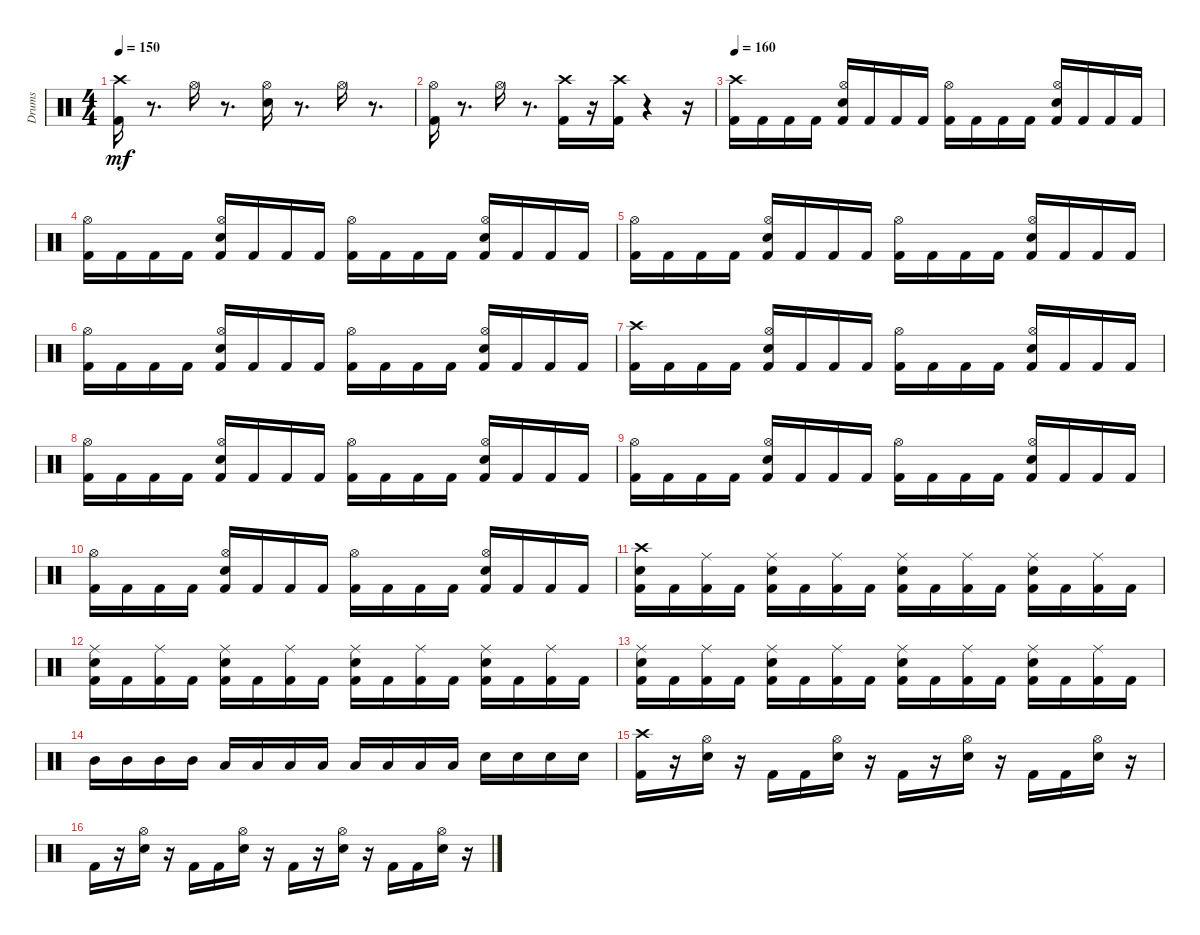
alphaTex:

\track ("Drums               " "Drums     ") {instrument percussion}
\staff {score}
\articulation defaults
\ts (4 4)
\tempo 150
\clef neutral
\ks c
("Kick (hit) 2" "Crash high (hit)").16{dy mf} r.8{d} "Hi-Hat (open)".16 r.8{d} ("Hi-Hat (open)" "Snare (hit) 2").16 r.8{d} "Hi-Hat (open)".16 r.8{d} |
("Kick (hit) 2" "Hi-Hat (open)").16 r.8{d} "Hi-Hat (open)".16 r.8{d} ("Crash high (hit)" "Kick (hit) 2").16 r.16 ("Crash high (hit)" "Kick (hit) 2").16 r.4 r.16 |
\tempo 160
("Crash high (hit)" "Kick (hit) 2").16 "Kick (hit) 2".16 "Kick (hit) 2".16 "Kick (hit) 2".16 ("Kick (hit) 2" "Snare (hit) 2" "Hi-Hat (open)").16 "Kick (hit) 2".16 "Kick (hit) 2".16 "Kick (hit) 2".16 ("Kick (hit) 2" "Hi-Hat (open)").16 "Kick (hit) 2".16 "Kick (hit) 2".16 "Kick (hit) 2".16 ("Kick (hit) 2" "Snare (hit) 2" "Hi-Hat (open)").16 "Kick (hit) 2".16 "Kick (hit) 2".16 "Kick (hit) 2".16 |
("Kick (hit) 2" "Hi-Hat (open)").16 "Kick (hit) 2".16 "Kick (hit) 2".16 "Kick (hit) 2".16 ("Kick (hit) 2" "Snare (hit) 2" "Hi-Hat (open)").16 "Kick (hit) 2".16 "Kick (hit) 2".16 "Kick (hit) 2".16 ("Kick (hit) 2" "Hi-Hat (open)").16 "Kick (hit) 2".16 "Kick (hit) 2".16 "Kick (hit) 2".16 ("Kick (hit) 2" "Snare (hit) 2" "Hi-Hat (open)").16 "Kick (hit) 2".16 "Kick (hit) 2".16 "Kick (hit) 2".16 |
("Kick (hit) 2" "Hi-Hat (open)").16 "Kick (hit) 2".16 "Kick (hit) 2".16 "Kick (hit) 2".16 ("Kick (hit) 2" "Snare (hit) 2" "Hi-Hat (open)").16 "Kick (hit) 2".16 "Kick (hit) 2".16 "Kick (hit) 2".16 ("Kick (hit) 2" "Hi-Hat (open)").16 "Kick (hit) 2".16 "Kick (hit) 2".16 "Kick (hit) 2".16 ("Kick (hit) 2" "Snare (hit) 2" "Hi-Hat (open)").16 "Kick (hit) 2".16 "Kick (hit) 2".16 "Kick (hit) 2".16 |
("Kick (hit) 2" "Hi-Hat (open)").16 "Kick (hit) 2".16 "Kick (hit) 2".16 "Kick (hit) 2".16 ("Kick (hit) 2" "Snare (hit) 2" "Hi-Hat (open)").16 "Kick (hit) 2".16 "Kick (hit) 2".16 "Kick (hit) 2".16 ("Kick (hit) 2" "Hi-Hat (open)").16 "Kick (hit) 2".16 "Kick (hit) 2".16 "Kick (hit) 2".16 ("Kick (hit) 2" "Snare (hit) 2" "Hi-Hat (open)").16 "Kick (hit) 2".16 "Kick (hit) 2".16 "Kick (hit) 2".16 |
("Kick (hit) 2" "Crash high (hit)").16 "Kick (hit) 2".16 "Kick (hit) 2".16 "Kick (hit) 2".16 ("Kick (hit) 2" "Snare (hit) 2" "Hi-Hat (open)").16 "Kick (hit) 2".16 "Kick (hit) 2".16 "Kick (hit) 2".16 ("Kick (hit) 2" "Hi-Hat (open)").16 "Kick (hit) 2".16 "Kick (hit) 2".16 "Kick (hit) 2".16 ("Kick (hit) 2" "Snare (hit) 2" "Hi-Hat (open)").16 "Kick (hit) 2".16 "Kick (hit) 2".16 "Kick (hit) 2".16 |
("Kick (hit) 2" "Hi-Hat (open)").16 "Kick (hit) 2".16 "Kick (hit) 2".16 "Kick (hit) 2".16 ("Kick (hit) 2" "Snare (hit) 2" "Hi-Hat (open)").16 "Kick (hit) 2".16 "Kick (hit) 2".16 "Kick (hit) 2".16 ("Kick (hit) 2" "Hi-Hat (open)").16 "Kick (hit) 2".16 "Kick (hit) 2".16 "Kick (hit) 2".16 ("Kick (hit) 2" "Snare (hit) 2" "Hi-Hat (open)").16 "Kick (hit) 2".16 "Kick (hit) 2".16 "Kick (hit) 2".16 |
("Kick (hit) 2" "Hi-Hat (open)").16 "Kick (hit) 2".16 "Kick (hit) 2".16 "Kick (hit) 2".16 ("Kick (hit) 2" "Snare (hit) 2" "Hi-Hat (open)").16 "Kick (hit) 2".16 "Kick (hit) 2".16 "Kick (hit) 2".16 ("Kick (hit) 2" "Hi-Hat (open)").16 "Kick (hit) 2".16 "Kick (hit) 2".16 "Kick (hit) 2".16 ("Kick (hit) 2" "Snare (hit) 2" "Hi-Hat (open)").16 "Kick (hit) 2".16 "Kick (hit) 2".16 "Kick (hit) 2".16 |
("Kick (hit) 2" "Hi-Hat (open)").16 "Kick (hit) 2".16 "Kick (hit) 2".16 "Kick (hit) 2".16 ("Kick (hit) 2" "Snare (hit) 2" "Hi-Hat (open)").16 "Kick (hit) 2".16 "Kick (hit) 2".16 "Kick (hit) 2".16 ("Kick (hit) 2" "Hi-Hat (open)").16 "Kick (hit) 2".16 "Kick (hit) 2".16 "Kick (hit) 2".16 ("Kick (hit) 2" "Snare (hit) 2" "Hi-Hat (open)").16 "Kick (hit) 2".16 "Kick (hit) 2".16 "Kick (hit) 2".16 |
("Crash high (hit)" "Kick (hit) 2" "Snare (hit) 2").16 "Kick (hit) 2".16 ("Kick (hit) 2" "Ride (middle)").16 "Kick (hit) 2".16 ("Kick (hit) 2" "Snare (hit) 2" "Ride (middle)").16 "Kick (hit) 2".16 ("Kick (hit) 2" "Ride (middle)").16 "Kick (hit) 2".16 ("Kick (hit) 2" "Snare (hit) 2" "Ride (middle)").16 "Kick (hit) 2".16 ("Kick (hit) 2" "Ride (middle)").16 "Kick (hit) 2".16 ("Kick (hit) 2" "Snare (hit) 2" "Ride (middle)").16 "Kick (hit) 2".16 ("Kick (hit) 2" "Ride (middle)").16 "Kick (hit) 2".16 |
("Kick (hit) 2" "Snare (hit) 2" "Ride (middle)").16 "Kick (hit) 2".16 ("Kick (hit) 2" "Ride (middle)").16 "Kick (hit) 2".16 ("Kick (hit) 2" "Snare (hit) 2" "Ride (middle)").16 "Kick (hit) 2".16 ("Kick (hit) 2" "Ride (middle)").16 "Kick (hit) 2".16 ("Kick (hit) 2" "Snare (hit) 2" "Ride (middle)").16 "Kick (hit) 2".16 ("Kick (hit) 2" "Ride (middle)").16 "Kick (hit) 2".16 ("Kick (hit) 2" "Snare (hit) 2" "Ride (middle)").16 "Kick (hit) 2".16 ("Kick (hit) 2" "Ride (middle)").16 "Kick (hit) 2".16 |
("Kick (hit) 2" "Snare (hit) 2" "Ride (middle)").16 "Kick (hit) 2".16 ("Kick (hit) 2" "Ride (middle)").16 "Kick (hit) 2".16 ("Kick (hit) 2" "Snare (hit) 2" "Ride (middle)").16 "Kick (hit) 2".16 ("Kick (hit) 2" "Ride (middle)").16 "Kick (hit) 2".16 ("Kick (hit) 2" "Snare (hit) 2" "Ride (middle)").16 "Kick (hit) 2".16 ("Kick (hit) 2" "Ride (middle)").16 "Kick (hit) 2".16 ("Kick (hit) 2" "Snare (hit) 2" "Ride (middle)").16 "Kick (hit) 2".16 ("Kick (hit) 2" "Ride (middle)").16 "Kick (hit) 2".16 |
"Mid Tom (hit)".16 "Mid Tom (hit)".16 "Mid Tom (hit)".16 "Mid Tom (hit)".16 "Low Floor Tom (hit)".16 "Low Floor Tom (hit)".16 "Low Floor Tom (hit)".16 "Low Floor Tom (hit)".16 "Low Tom (hit)".16 "Low Tom (hit)".16 "Low Tom (hit)".16 "Low Tom (hit)".16 "Snare (hit) 2".16 "Snare (hit) 2".16 "Snare (hit) 2".16 "Snare (hit) 2".16 |
("Crash high (hit)" "Kick (hit) 2").16 r.16 ("Snare (hit) 2" "Hi-Hat (open)").16 r.16 "Kick (hit) 2".16 "Kick (hit) 2".16 ("Snare (hit) 2" "Hi-Hat (open)").16 r.16 "Kick (hit) 2".16 r.16 ("Snare (hit) 2" "Hi-Hat (open)").16 r.16 "Kick (hit) 2".16 "Kick (hit) 2".16 ("Snare (hit) 2" "Hi-Hat (open)").16 r.16 |
"Kick (hit) 2".16 r.16 ("Snare (hit) 2" "Hi-Hat (open)").16 r.16 "Kick (hit) 2".16 "Kick (hit) 2".16 ("Snare (hit) 2" "Hi-Hat (open)").16 r.16 "Kick (hit) 2".16 r.16 ("Snare (hit) 2" "Hi-Hat (open)").16 r.16 "Kick (hit) 2".16 "Kick (hit) 2".16 ("Snare (hit) 2" "Hi-Hat (open)").16 r.16
